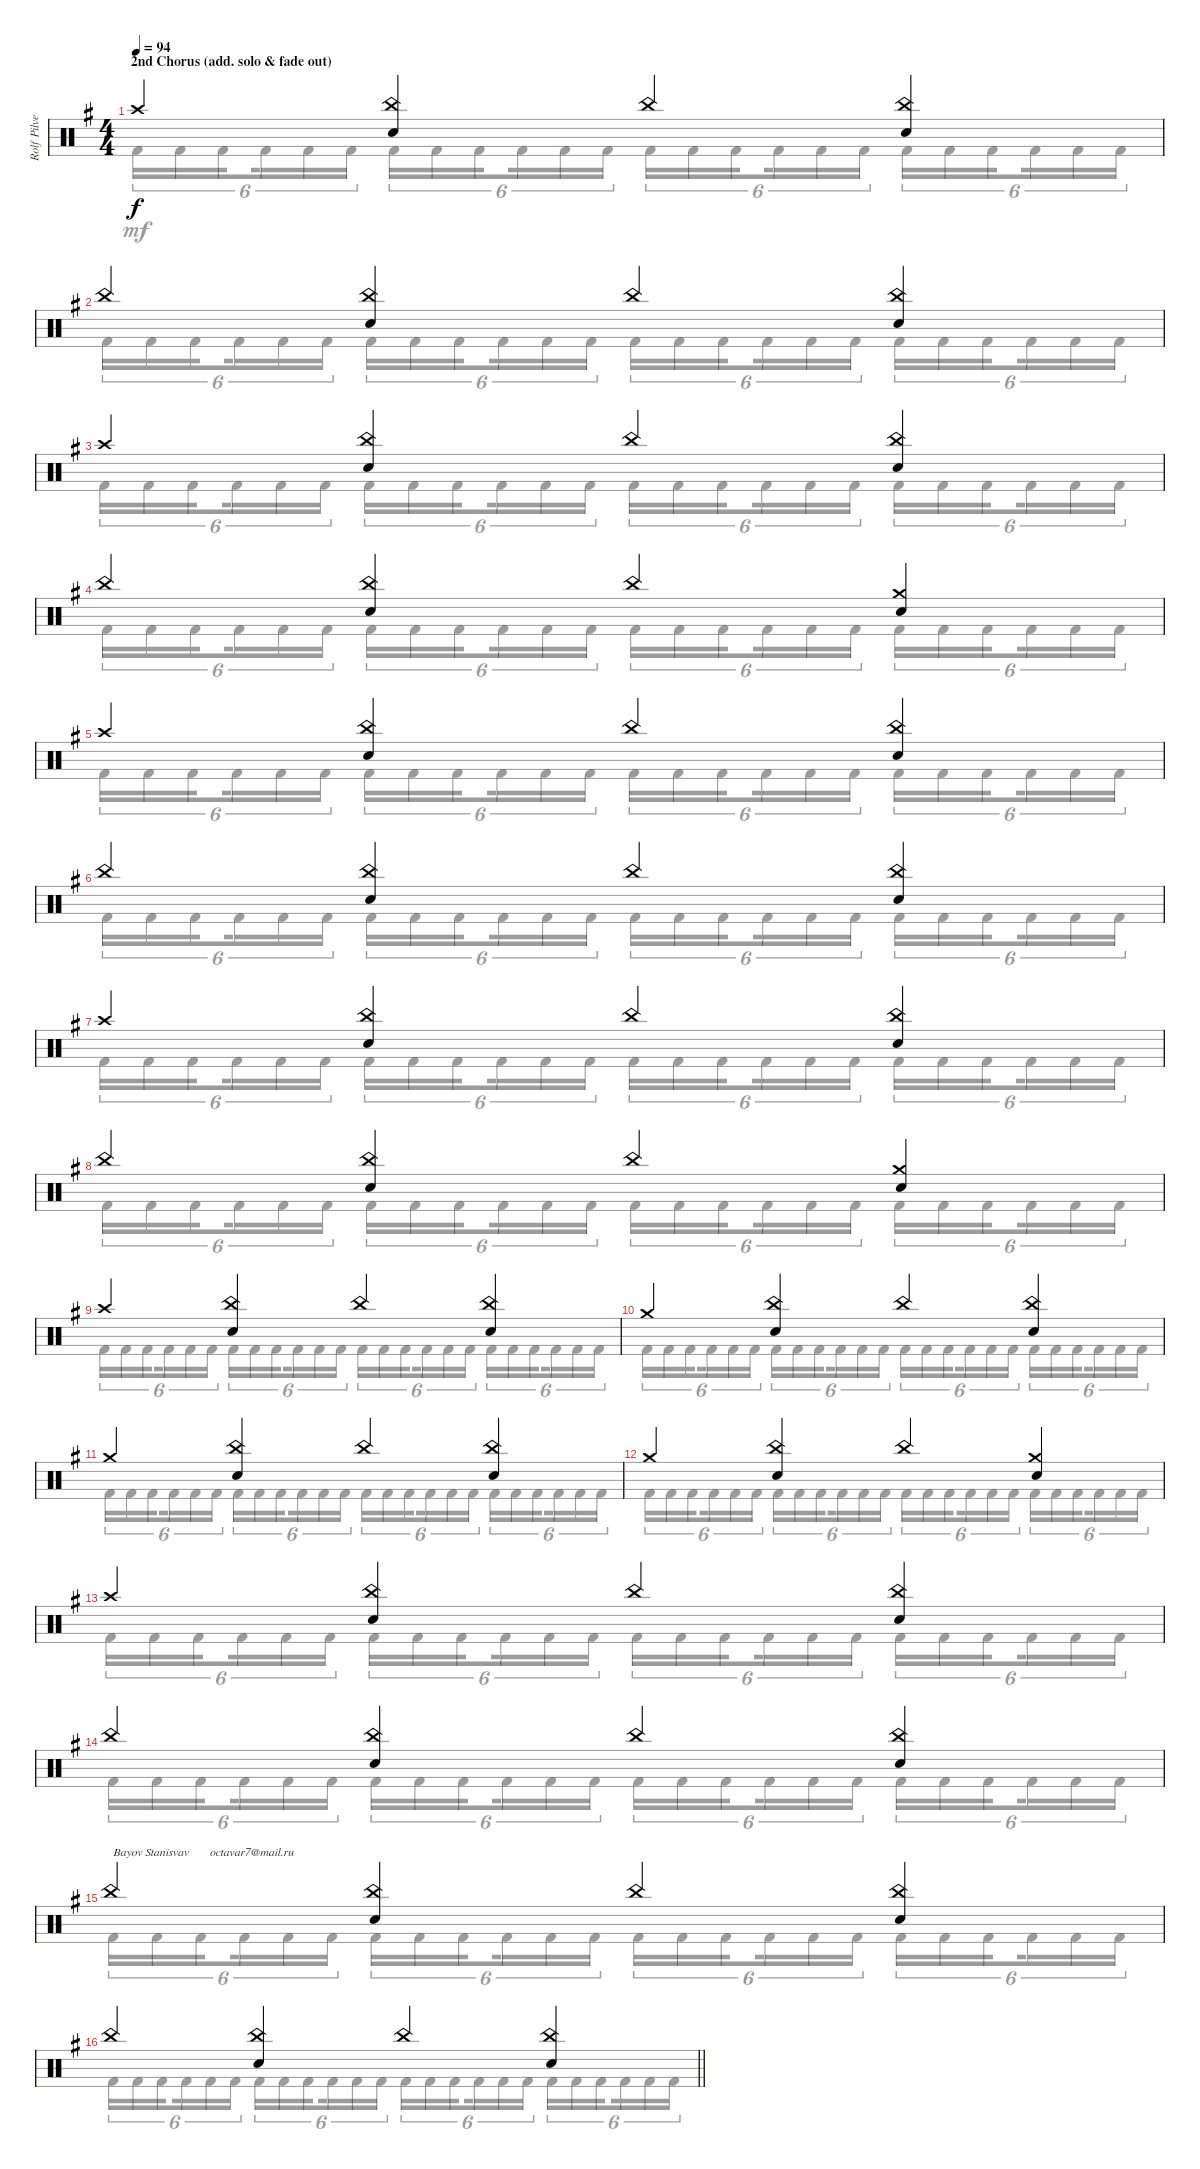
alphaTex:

\track ("Rolf Pilve - drums" "Rolf Pilve") {instrument percussion}
\staff {score}
\articulation defaults
\voice
\ts (4 4)
\section ("" "2nd Chorus (add. solo & fade out)")
\tempo 94
\clef neutral
\ks eminor "Crash high (hit)".4{dy f volume 10}
("China (hit)" "Snare (hit) 2").4 "China (hit)".4 ("China (hit)" "Snare (hit) 2").4 |
"China (hit)".4 ("China (hit)" "Snare (hit) 2").4 "China (hit)".4 ("China (hit)" "Snare (hit) 2").4 |
"Crash high (hit)".4 ("China (hit)" "Snare (hit) 2").4 "China (hit)".4 ("China (hit)" "Snare (hit) 2").4 |
"China (hit)".4 ("China (hit)" "Snare (hit) 2").4 "China (hit)".4 ("Crash medium (hit)" "Snare (hit) 2").4 |
"Crash high (hit)".4{volume 8} ("China (hit)" "Snare (hit) 2").4 "China (hit)".4 ("China (hit)" "Snare (hit) 2").4 |
"China (hit)".4 ("China (hit)" "Snare (hit) 2").4 "China (hit)".4 ("China (hit)" "Snare (hit) 2").4 |
"Crash high (hit)".4 ("China (hit)" "Snare (hit) 2").4 "China (hit)".4 ("China (hit)" "Snare (hit) 2").4 |
"China (hit)".4 ("China (hit)" "Snare (hit) 2").4 "China (hit)".4 ("Crash medium (hit)" "Snare (hit) 2").4 |
"Crash high (hit)".4{volume 6} ("China (hit)" "Snare (hit) 2").4 "China (hit)".4 ("China (hit)" "Snare (hit) 2").4 |
"Crash medium (hit)".4 ("China (hit)" "Snare (hit) 2").4 "China (hit)".4 ("China (hit)" "Snare (hit) 2").4 |
"Crash medium (hit)".4 ("China (hit)" "Snare (hit) 2").4 "China (hit)".4 ("China (hit)" "Snare (hit) 2").4 |
"Crash medium (hit)".4 ("China (hit)" "Snare (hit) 2").4 "China (hit)".4 ("Crash medium (hit)" "Snare (hit) 2").4 |
"Crash high (hit)".4{volume 2} ("China (hit)" "Snare (hit) 2").4 "China (hit)".4 ("China (hit)" "Snare (hit) 2").4 |
"China (hit)".4 ("China (hit)" "Snare (hit) 2").4 "China (hit)".4 ("China (hit)" "Snare (hit) 2").4 |
"China (hit)".4{txt "Bayov Stanisvav       octavar7@mail.ru"} ("China (hit)" "Snare (hit) 2").4 "China (hit)".4 ("China (hit)" "Snare (hit) 2").4 |
\barLineRight lightlight "China (hit)".4
("China (hit)" "Snare (hit) 2").4 "China (hit)".4 ("China (hit)" "Snare (hit) 2").4
\voice
\clef neutral
\ottava regular
\simile none
\ks eminor "Kick (hit) 2".16{tu (6 4) dy mf} "Kick (hit) 2".16{tu (6 4)} "Kick (hit) 2".16{tu (6 4) beam splitsecondary} "Kick (hit) 2".16{tu (6 4)} "Kick (hit) 2".16{tu (6 4)} "Kick (hit) 2".16{tu (6 4)} "Kick (hit) 2".16{tu (6 4)} "Kick (hit) 2".16{tu (6 4)} "Kick (hit) 2".16{tu (6 4) beam splitsecondary} "Kick (hit) 2".16{tu (6 4)} "Kick (hit) 2".16{tu (6 4)} "Kick (hit) 2".16{tu (6 4)} "Kick (hit) 2".16{tu (6 4)} "Kick (hit) 2".16{tu (6 4)} "Kick (hit) 2".16{tu (6 4) beam splitsecondary} "Kick (hit) 2".16{tu (6 4)} "Kick (hit) 2".16{tu (6 4)} "Kick (hit) 2".16{tu (6 4)} "Kick (hit) 2".16{tu (6 4)} "Kick (hit) 2".16{tu (6 4)} "Kick (hit) 2".16{tu (6 4) beam splitsecondary} "Kick (hit) 2".16{tu (6 4)} "Kick (hit) 2".16{tu (6 4)} "Kick (hit) 2".16{tu (6 4)}
|
"Kick (hit) 2".16{tu (6 4)} "Kick (hit) 2".16{tu (6 4)} "Kick (hit) 2".16{tu (6 4) beam splitsecondary} "Kick (hit) 2".16{tu (6 4)} "Kick (hit) 2".16{tu (6 4)} "Kick (hit) 2".16{tu (6 4)} "Kick (hit) 2".16{tu (6 4)} "Kick (hit) 2".16{tu (6 4)} "Kick (hit) 2".16{tu (6 4) beam splitsecondary} "Kick (hit) 2".16{tu (6 4)} "Kick (hit) 2".16{tu (6 4)} "Kick (hit) 2".16{tu (6 4)} "Kick (hit) 2".16{tu (6 4)} "Kick (hit) 2".16{tu (6 4)} "Kick (hit) 2".16{tu (6 4) beam splitsecondary} "Kick (hit) 2".16{tu (6 4)} "Kick (hit) 2".16{tu (6 4)} "Kick (hit) 2".16{tu (6 4)} "Kick (hit) 2".16{tu (6 4)} "Kick (hit) 2".16{tu (6 4)} "Kick (hit) 2".16{tu (6 4) beam splitsecondary} "Kick (hit) 2".16{tu (6 4)} "Kick (hit) 2".16{tu (6 4)} "Kick (hit) 2".16{tu (6 4)} |
"Kick (hit) 2".16{tu (6 4)} "Kick (hit) 2".16{tu (6 4)} "Kick (hit) 2".16{tu (6 4) beam splitsecondary} "Kick (hit) 2".16{tu (6 4)} "Kick (hit) 2".16{tu (6 4)} "Kick (hit) 2".16{tu (6 4)} "Kick (hit) 2".16{tu (6 4)} "Kick (hit) 2".16{tu (6 4)} "Kick (hit) 2".16{tu (6 4) beam splitsecondary} "Kick (hit) 2".16{tu (6 4)} "Kick (hit) 2".16{tu (6 4)} "Kick (hit) 2".16{tu (6 4)} "Kick (hit) 2".16{tu (6 4)} "Kick (hit) 2".16{tu (6 4)} "Kick (hit) 2".16{tu (6 4) beam splitsecondary} "Kick (hit) 2".16{tu (6 4)} "Kick (hit) 2".16{tu (6 4)} "Kick (hit) 2".16{tu (6 4)} "Kick (hit) 2".16{tu (6 4)} "Kick (hit) 2".16{tu (6 4)} "Kick (hit) 2".16{tu (6 4) beam splitsecondary} "Kick (hit) 2".16{tu (6 4)} "Kick (hit) 2".16{tu (6 4)} "Kick (hit) 2".16{tu (6 4)} |
"Kick (hit) 2".16{tu (6 4)} "Kick (hit) 2".16{tu (6 4)} "Kick (hit) 2".16{tu (6 4) beam splitsecondary} "Kick (hit) 2".16{tu (6 4)} "Kick (hit) 2".16{tu (6 4)} "Kick (hit) 2".16{tu (6 4)} "Kick (hit) 2".16{tu (6 4)} "Kick (hit) 2".16{tu (6 4)} "Kick (hit) 2".16{tu (6 4) beam splitsecondary} "Kick (hit) 2".16{tu (6 4)} "Kick (hit) 2".16{tu (6 4)} "Kick (hit) 2".16{tu (6 4)} "Kick (hit) 2".16{tu (6 4)} "Kick (hit) 2".16{tu (6 4)} "Kick (hit) 2".16{tu (6 4) beam splitsecondary} "Kick (hit) 2".16{tu (6 4)} "Kick (hit) 2".16{tu (6 4)} "Kick (hit) 2".16{tu (6 4)} "Kick (hit) 2".16{tu (6 4)} "Kick (hit) 2".16{tu (6 4)} "Kick (hit) 2".16{tu (6 4) beam splitsecondary} "Kick (hit) 2".16{tu (6 4)} "Kick (hit) 2".16{tu (6 4)} "Kick (hit) 2".16{tu (6 4)} |
"Kick (hit) 2".16{tu (6 4)} "Kick (hit) 2".16{tu (6 4)} "Kick (hit) 2".16{tu (6 4) beam splitsecondary} "Kick (hit) 2".16{tu (6 4)} "Kick (hit) 2".16{tu (6 4)} "Kick (hit) 2".16{tu (6 4)} "Kick (hit) 2".16{tu (6 4)} "Kick (hit) 2".16{tu (6 4)} "Kick (hit) 2".16{tu (6 4) beam splitsecondary} "Kick (hit) 2".16{tu (6 4)} "Kick (hit) 2".16{tu (6 4)} "Kick (hit) 2".16{tu (6 4)} "Kick (hit) 2".16{tu (6 4)} "Kick (hit) 2".16{tu (6 4)} "Kick (hit) 2".16{tu (6 4) beam splitsecondary} "Kick (hit) 2".16{tu (6 4)} "Kick (hit) 2".16{tu (6 4)} "Kick (hit) 2".16{tu (6 4)} "Kick (hit) 2".16{tu (6 4)} "Kick (hit) 2".16{tu (6 4)} "Kick (hit) 2".16{tu (6 4) beam splitsecondary} "Kick (hit) 2".16{tu (6 4)} "Kick (hit) 2".16{tu (6 4)} "Kick (hit) 2".16{tu (6 4)} |
"Kick (hit) 2".16{tu (6 4)} "Kick (hit) 2".16{tu (6 4)} "Kick (hit) 2".16{tu (6 4) beam splitsecondary} "Kick (hit) 2".16{tu (6 4)} "Kick (hit) 2".16{tu (6 4)} "Kick (hit) 2".16{tu (6 4)} "Kick (hit) 2".16{tu (6 4)} "Kick (hit) 2".16{tu (6 4)} "Kick (hit) 2".16{tu (6 4) beam splitsecondary} "Kick (hit) 2".16{tu (6 4)} "Kick (hit) 2".16{tu (6 4)} "Kick (hit) 2".16{tu (6 4)} "Kick (hit) 2".16{tu (6 4)} "Kick (hit) 2".16{tu (6 4)} "Kick (hit) 2".16{tu (6 4) beam splitsecondary} "Kick (hit) 2".16{tu (6 4)} "Kick (hit) 2".16{tu (6 4)} "Kick (hit) 2".16{tu (6 4)} "Kick (hit) 2".16{tu (6 4)} "Kick (hit) 2".16{tu (6 4)} "Kick (hit) 2".16{tu (6 4) beam splitsecondary} "Kick (hit) 2".16{tu (6 4)} "Kick (hit) 2".16{tu (6 4)} "Kick (hit) 2".16{tu (6 4)} |
"Kick (hit) 2".16{tu (6 4)} "Kick (hit) 2".16{tu (6 4)} "Kick (hit) 2".16{tu (6 4) beam splitsecondary} "Kick (hit) 2".16{tu (6 4)} "Kick (hit) 2".16{tu (6 4)} "Kick (hit) 2".16{tu (6 4)} "Kick (hit) 2".16{tu (6 4)} "Kick (hit) 2".16{tu (6 4)} "Kick (hit) 2".16{tu (6 4) beam splitsecondary} "Kick (hit) 2".16{tu (6 4)} "Kick (hit) 2".16{tu (6 4)} "Kick (hit) 2".16{tu (6 4)} "Kick (hit) 2".16{tu (6 4)} "Kick (hit) 2".16{tu (6 4)} "Kick (hit) 2".16{tu (6 4) beam splitsecondary} "Kick (hit) 2".16{tu (6 4)} "Kick (hit) 2".16{tu (6 4)} "Kick (hit) 2".16{tu (6 4)} "Kick (hit) 2".16{tu (6 4)} "Kick (hit) 2".16{tu (6 4)} "Kick (hit) 2".16{tu (6 4) beam splitsecondary} "Kick (hit) 2".16{tu (6 4)} "Kick (hit) 2".16{tu (6 4)} "Kick (hit) 2".16{tu (6 4)} |
"Kick (hit) 2".16{tu (6 4)} "Kick (hit) 2".16{tu (6 4)} "Kick (hit) 2".16{tu (6 4) beam splitsecondary} "Kick (hit) 2".16{tu (6 4)} "Kick (hit) 2".16{tu (6 4)} "Kick (hit) 2".16{tu (6 4)} "Kick (hit) 2".16{tu (6 4)} "Kick (hit) 2".16{tu (6 4)} "Kick (hit) 2".16{tu (6 4) beam splitsecondary} "Kick (hit) 2".16{tu (6 4)} "Kick (hit) 2".16{tu (6 4)} "Kick (hit) 2".16{tu (6 4)} "Kick (hit) 2".16{tu (6 4)} "Kick (hit) 2".16{tu (6 4)} "Kick (hit) 2".16{tu (6 4) beam splitsecondary} "Kick (hit) 2".16{tu (6 4)} "Kick (hit) 2".16{tu (6 4)} "Kick (hit) 2".16{tu (6 4)} "Kick (hit) 2".16{tu (6 4)} "Kick (hit) 2".16{tu (6 4)} "Kick (hit) 2".16{tu (6 4) beam splitsecondary} "Kick (hit) 2".16{tu (6 4)} "Kick (hit) 2".16{tu (6 4)} "Kick (hit) 2".16{tu (6 4)} |
"Kick (hit) 2".16{tu (6 4)} "Kick (hit) 2".16{tu (6 4)} "Kick (hit) 2".16{tu (6 4) beam splitsecondary} "Kick (hit) 2".16{tu (6 4)} "Kick (hit) 2".16{tu (6 4)} "Kick (hit) 2".16{tu (6 4)} "Kick (hit) 2".16{tu (6 4)} "Kick (hit) 2".16{tu (6 4)} "Kick (hit) 2".16{tu (6 4) beam splitsecondary} "Kick (hit) 2".16{tu (6 4)} "Kick (hit) 2".16{tu (6 4)} "Kick (hit) 2".16{tu (6 4)} "Kick (hit) 2".16{tu (6 4)} "Kick (hit) 2".16{tu (6 4)} "Kick (hit) 2".16{tu (6 4) beam splitsecondary} "Kick (hit) 2".16{tu (6 4)} "Kick (hit) 2".16{tu (6 4)} "Kick (hit) 2".16{tu (6 4)} "Kick (hit) 2".16{tu (6 4)} "Kick (hit) 2".16{tu (6 4)} "Kick (hit) 2".16{tu (6 4) beam splitsecondary} "Kick (hit) 2".16{tu (6 4)} "Kick (hit) 2".16{tu (6 4)} "Kick (hit) 2".16{tu (6 4)} |
"Kick (hit) 2".16{tu (6 4)} "Kick (hit) 2".16{tu (6 4)} "Kick (hit) 2".16{tu (6 4) beam splitsecondary} "Kick (hit) 2".16{tu (6 4)} "Kick (hit) 2".16{tu (6 4)} "Kick (hit) 2".16{tu (6 4)} "Kick (hit) 2".16{tu (6 4)} "Kick (hit) 2".16{tu (6 4)} "Kick (hit) 2".16{tu (6 4) beam splitsecondary} "Kick (hit) 2".16{tu (6 4)} "Kick (hit) 2".16{tu (6 4)} "Kick (hit) 2".16{tu (6 4)} "Kick (hit) 2".16{tu (6 4)} "Kick (hit) 2".16{tu (6 4)} "Kick (hit) 2".16{tu (6 4) beam splitsecondary} "Kick (hit) 2".16{tu (6 4)} "Kick (hit) 2".16{tu (6 4)} "Kick (hit) 2".16{tu (6 4)} "Kick (hit) 2".16{tu (6 4)} "Kick (hit) 2".16{tu (6 4)} "Kick (hit) 2".16{tu (6 4) beam splitsecondary} "Kick (hit) 2".16{tu (6 4)} "Kick (hit) 2".16{tu (6 4)} "Kick (hit) 2".16{tu (6 4)} |
"Kick (hit) 2".16{tu (6 4)} "Kick (hit) 2".16{tu (6 4)} "Kick (hit) 2".16{tu (6 4) beam splitsecondary} "Kick (hit) 2".16{tu (6 4)} "Kick (hit) 2".16{tu (6 4)} "Kick (hit) 2".16{tu (6 4)} "Kick (hit) 2".16{tu (6 4)} "Kick (hit) 2".16{tu (6 4)} "Kick (hit) 2".16{tu (6 4) beam splitsecondary} "Kick (hit) 2".16{tu (6 4)} "Kick (hit) 2".16{tu (6 4)} "Kick (hit) 2".16{tu (6 4)} "Kick (hit) 2".16{tu (6 4)} "Kick (hit) 2".16{tu (6 4)} "Kick (hit) 2".16{tu (6 4) beam splitsecondary} "Kick (hit) 2".16{tu (6 4)} "Kick (hit) 2".16{tu (6 4)} "Kick (hit) 2".16{tu (6 4)} "Kick (hit) 2".16{tu (6 4)} "Kick (hit) 2".16{tu (6 4)} "Kick (hit) 2".16{tu (6 4) beam splitsecondary} "Kick (hit) 2".16{tu (6 4)} "Kick (hit) 2".16{tu (6 4)} "Kick (hit) 2".16{tu (6 4)} |
"Kick (hit) 2".16{tu (6 4)} "Kick (hit) 2".16{tu (6 4)} "Kick (hit) 2".16{tu (6 4) beam splitsecondary} "Kick (hit) 2".16{tu (6 4)} "Kick (hit) 2".16{tu (6 4)} "Kick (hit) 2".16{tu (6 4)} "Kick (hit) 2".16{tu (6 4)} "Kick (hit) 2".16{tu (6 4)} "Kick (hit) 2".16{tu (6 4) beam splitsecondary} "Kick (hit) 2".16{tu (6 4)} "Kick (hit) 2".16{tu (6 4)} "Kick (hit) 2".16{tu (6 4)} "Kick (hit) 2".16{tu (6 4)} "Kick (hit) 2".16{tu (6 4)} "Kick (hit) 2".16{tu (6 4) beam splitsecondary} "Kick (hit) 2".16{tu (6 4)} "Kick (hit) 2".16{tu (6 4)} "Kick (hit) 2".16{tu (6 4)} "Kick (hit) 2".16{tu (6 4)} "Kick (hit) 2".16{tu (6 4)} "Kick (hit) 2".16{tu (6 4) beam splitsecondary} "Kick (hit) 2".16{tu (6 4)} "Kick (hit) 2".16{tu (6 4)} "Kick (hit) 2".16{tu (6 4)} |
"Kick (hit) 2".16{tu (6 4)} "Kick (hit) 2".16{tu (6 4)} "Kick (hit) 2".16{tu (6 4) beam splitsecondary} "Kick (hit) 2".16{tu (6 4)} "Kick (hit) 2".16{tu (6 4)} "Kick (hit) 2".16{tu (6 4)} "Kick (hit) 2".16{tu (6 4)} "Kick (hit) 2".16{tu (6 4)} "Kick (hit) 2".16{tu (6 4) beam splitsecondary} "Kick (hit) 2".16{tu (6 4)} "Kick (hit) 2".16{tu (6 4)} "Kick (hit) 2".16{tu (6 4)} "Kick (hit) 2".16{tu (6 4)} "Kick (hit) 2".16{tu (6 4)} "Kick (hit) 2".16{tu (6 4) beam splitsecondary} "Kick (hit) 2".16{tu (6 4)} "Kick (hit) 2".16{tu (6 4)} "Kick (hit) 2".16{tu (6 4)} "Kick (hit) 2".16{tu (6 4)} "Kick (hit) 2".16{tu (6 4)} "Kick (hit) 2".16{tu (6 4) beam splitsecondary} "Kick (hit) 2".16{tu (6 4)} "Kick (hit) 2".16{tu (6 4)} "Kick (hit) 2".16{tu (6 4)} |
"Kick (hit) 2".16{tu (6 4)} "Kick (hit) 2".16{tu (6 4)} "Kick (hit) 2".16{tu (6 4) beam splitsecondary} "Kick (hit) 2".16{tu (6 4)} "Kick (hit) 2".16{tu (6 4)} "Kick (hit) 2".16{tu (6 4)} "Kick (hit) 2".16{tu (6 4)} "Kick (hit) 2".16{tu (6 4)} "Kick (hit) 2".16{tu (6 4) beam splitsecondary} "Kick (hit) 2".16{tu (6 4)} "Kick (hit) 2".16{tu (6 4)} "Kick (hit) 2".16{tu (6 4)} "Kick (hit) 2".16{tu (6 4)} "Kick (hit) 2".16{tu (6 4)} "Kick (hit) 2".16{tu (6 4) beam splitsecondary} "Kick (hit) 2".16{tu (6 4)} "Kick (hit) 2".16{tu (6 4)} "Kick (hit) 2".16{tu (6 4)} "Kick (hit) 2".16{tu (6 4)} "Kick (hit) 2".16{tu (6 4)} "Kick (hit) 2".16{tu (6 4) beam splitsecondary} "Kick (hit) 2".16{tu (6 4)} "Kick (hit) 2".16{tu (6 4)} "Kick (hit) 2".16{tu (6 4)} |
"Kick (hit) 2".16{tu (6 4)} "Kick (hit) 2".16{tu (6 4)} "Kick (hit) 2".16{tu (6 4) beam splitsecondary} "Kick (hit) 2".16{tu (6 4)} "Kick (hit) 2".16{tu (6 4)} "Kick (hit) 2".16{tu (6 4)} "Kick (hit) 2".16{tu (6 4)} "Kick (hit) 2".16{tu (6 4)} "Kick (hit) 2".16{tu (6 4) beam splitsecondary} "Kick (hit) 2".16{tu (6 4)} "Kick (hit) 2".16{tu (6 4)} "Kick (hit) 2".16{tu (6 4)} "Kick (hit) 2".16{tu (6 4)} "Kick (hit) 2".16{tu (6 4)} "Kick (hit) 2".16{tu (6 4) beam splitsecondary} "Kick (hit) 2".16{tu (6 4)} "Kick (hit) 2".16{tu (6 4)} "Kick (hit) 2".16{tu (6 4)} "Kick (hit) 2".16{tu (6 4)} "Kick (hit) 2".16{tu (6 4)} "Kick (hit) 2".16{tu (6 4) beam splitsecondary} "Kick (hit) 2".16{tu (6 4)} "Kick (hit) 2".16{tu (6 4)} "Kick (hit) 2".16{tu (6 4)} |
\barLineRight lightlight "Kick (hit) 2".16{tu (6 4)} "Kick (hit) 2".16{tu (6 4)} "Kick (hit) 2".16{tu (6 4) beam splitsecondary} "Kick (hit) 2".16{tu (6 4)} "Kick (hit) 2".16{tu (6 4)} "Kick (hit) 2".16{tu (6 4)} "Kick (hit) 2".16{tu (6 4)} "Kick (hit) 2".16{tu (6 4)} "Kick (hit) 2".16{tu (6 4) beam splitsecondary} "Kick (hit) 2".16{tu (6 4)} "Kick (hit) 2".16{tu (6 4)} "Kick (hit) 2".16{tu (6 4)} "Kick (hit) 2".16{tu (6 4)} "Kick (hit) 2".16{tu (6 4)} "Kick (hit) 2".16{tu (6 4) beam splitsecondary} "Kick (hit) 2".16{tu (6 4)} "Kick (hit) 2".16{tu (6 4)} "Kick (hit) 2".16{tu (6 4)} "Kick (hit) 2".16{tu (6 4)} "Kick (hit) 2".16{tu (6 4)} "Kick (hit) 2".16{tu (6 4) beam splitsecondary} "Kick (hit) 2".16{tu (6 4)} "Kick (hit) 2".16{tu (6 4)} "Kick (hit) 2".16{tu (6 4)}
